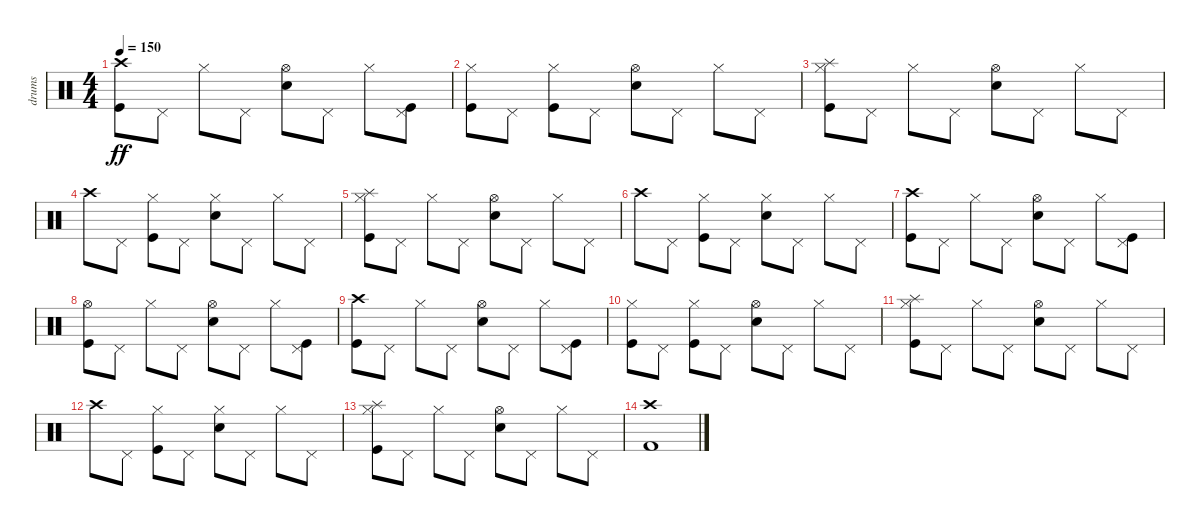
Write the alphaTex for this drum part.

\track ("drums" "drums") {instrument percussion}
\staff {score}
\articulation defaults
\ts (4 4)
\tempo 150
\clef neutral
\ks c
("Crash high (hit)" "Kick (hit)").8{dy ff} "Pedal Hi-Hat (hit)".8 "Hi-Hat (closed)".8 "Pedal Hi-Hat (hit)".8 ("Hi-Hat (open)" "Electric Snare (hit)").8 "Pedal Hi-Hat (hit)".8 "Hi-Hat (closed)".8 ("Pedal Hi-Hat (hit)" "Kick (hit)").8 |
("Hi-Hat (closed)" "Kick (hit)").8 "Pedal Hi-Hat (hit)".8 ("Hi-Hat (closed)" "Kick (hit)").8 "Pedal Hi-Hat (hit)".8 ("Hi-Hat (open)" "Electric Snare (hit)").8 "Pedal Hi-Hat (hit)".8 "Hi-Hat (closed)".8 "Pedal Hi-Hat (hit)".8 |
("Hi-Hat (closed)" "Splash (hit)" "Kick (hit)").8 "Pedal Hi-Hat (hit)".8 "Hi-Hat (closed)".8 "Pedal Hi-Hat (hit)".8 ("Hi-Hat (open)" "Electric Snare (hit)").8 "Pedal Hi-Hat (hit)".8 "Hi-Hat (closed)".8 "Pedal Hi-Hat (hit)".8 |
"Crash high (hit)".8 "Pedal Hi-Hat (hit)".8 ("Hi-Hat (closed)" "Kick (hit)").8 "Pedal Hi-Hat (hit)".8 ("Hi-Hat (closed)" "Electric Snare (hit)").8 "Pedal Hi-Hat (hit)".8 "Hi-Hat (closed)".8 "Pedal Hi-Hat (hit)".8 |
("Hi-Hat (closed)" "Splash (hit)" "Kick (hit)").8 "Pedal Hi-Hat (hit)".8 "Hi-Hat (closed)".8 "Pedal Hi-Hat (hit)".8 ("Hi-Hat (open)" "Electric Snare (hit)").8 "Pedal Hi-Hat (hit)".8 "Hi-Hat (closed)".8 "Pedal Hi-Hat (hit)".8 |
"Crash high (hit)".8 "Pedal Hi-Hat (hit)".8 ("Hi-Hat (closed)" "Kick (hit)").8 "Pedal Hi-Hat (hit)".8 ("Hi-Hat (closed)" "Electric Snare (hit)").8 "Pedal Hi-Hat (hit)".8 "Hi-Hat (closed)".8 "Pedal Hi-Hat (hit)".8 |
("Crash high (hit)" "Kick (hit)").8 "Pedal Hi-Hat (hit)".8 "Hi-Hat (closed)".8 "Pedal Hi-Hat (hit)".8 ("Hi-Hat (open)" "Electric Snare (hit)").8 "Pedal Hi-Hat (hit)".8 "Hi-Hat (closed)".8 ("Pedal Hi-Hat (hit)" "Kick (hit)").8 |
("Hi-Hat (open)" "Kick (hit)").8 "Pedal Hi-Hat (hit)".8 "Hi-Hat (closed)".8 "Pedal Hi-Hat (hit)".8 ("Hi-Hat (open)" "Electric Snare (hit)").8 "Pedal Hi-Hat (hit)".8 "Hi-Hat (closed)".8 ("Pedal Hi-Hat (hit)" "Kick (hit)").8 |
("Crash high (hit)" "Kick (hit)").8 "Pedal Hi-Hat (hit)".8 "Hi-Hat (closed)".8 "Pedal Hi-Hat (hit)".8 ("Hi-Hat (open)" "Electric Snare (hit)").8 "Pedal Hi-Hat (hit)".8 "Hi-Hat (closed)".8 ("Pedal Hi-Hat (hit)" "Kick (hit)").8 |
("Hi-Hat (closed)" "Kick (hit)").8 "Pedal Hi-Hat (hit)".8 ("Hi-Hat (closed)" "Kick (hit)").8 "Pedal Hi-Hat (hit)".8 ("Hi-Hat (open)" "Electric Snare (hit)").8 "Pedal Hi-Hat (hit)".8 "Hi-Hat (closed)".8 "Pedal Hi-Hat (hit)".8 |
("Hi-Hat (closed)" "Splash (hit)" "Kick (hit)").8 "Pedal Hi-Hat (hit)".8 "Hi-Hat (closed)".8 "Pedal Hi-Hat (hit)".8 ("Hi-Hat (open)" "Electric Snare (hit)").8 "Pedal Hi-Hat (hit)".8 "Hi-Hat (closed)".8 "Pedal Hi-Hat (hit)".8 |
"Crash high (hit)".8 "Pedal Hi-Hat (hit)".8 ("Hi-Hat (closed)" "Kick (hit)").8 "Pedal Hi-Hat (hit)".8 ("Hi-Hat (closed)" "Electric Snare (hit)").8 "Pedal Hi-Hat (hit)".8 "Hi-Hat (closed)".8 "Pedal Hi-Hat (hit)".8 |
("Hi-Hat (closed)" "Splash (hit)" "Kick (hit)").8 "Pedal Hi-Hat (hit)".8 "Hi-Hat (closed)".8 "Pedal Hi-Hat (hit)".8 ("Hi-Hat (open)" "Electric Snare (hit)").8 "Pedal Hi-Hat (hit)".8 "Hi-Hat (closed)".8 "Pedal Hi-Hat (hit)".8 |
("Kick (hit) 2" "Crash high (hit)").1
